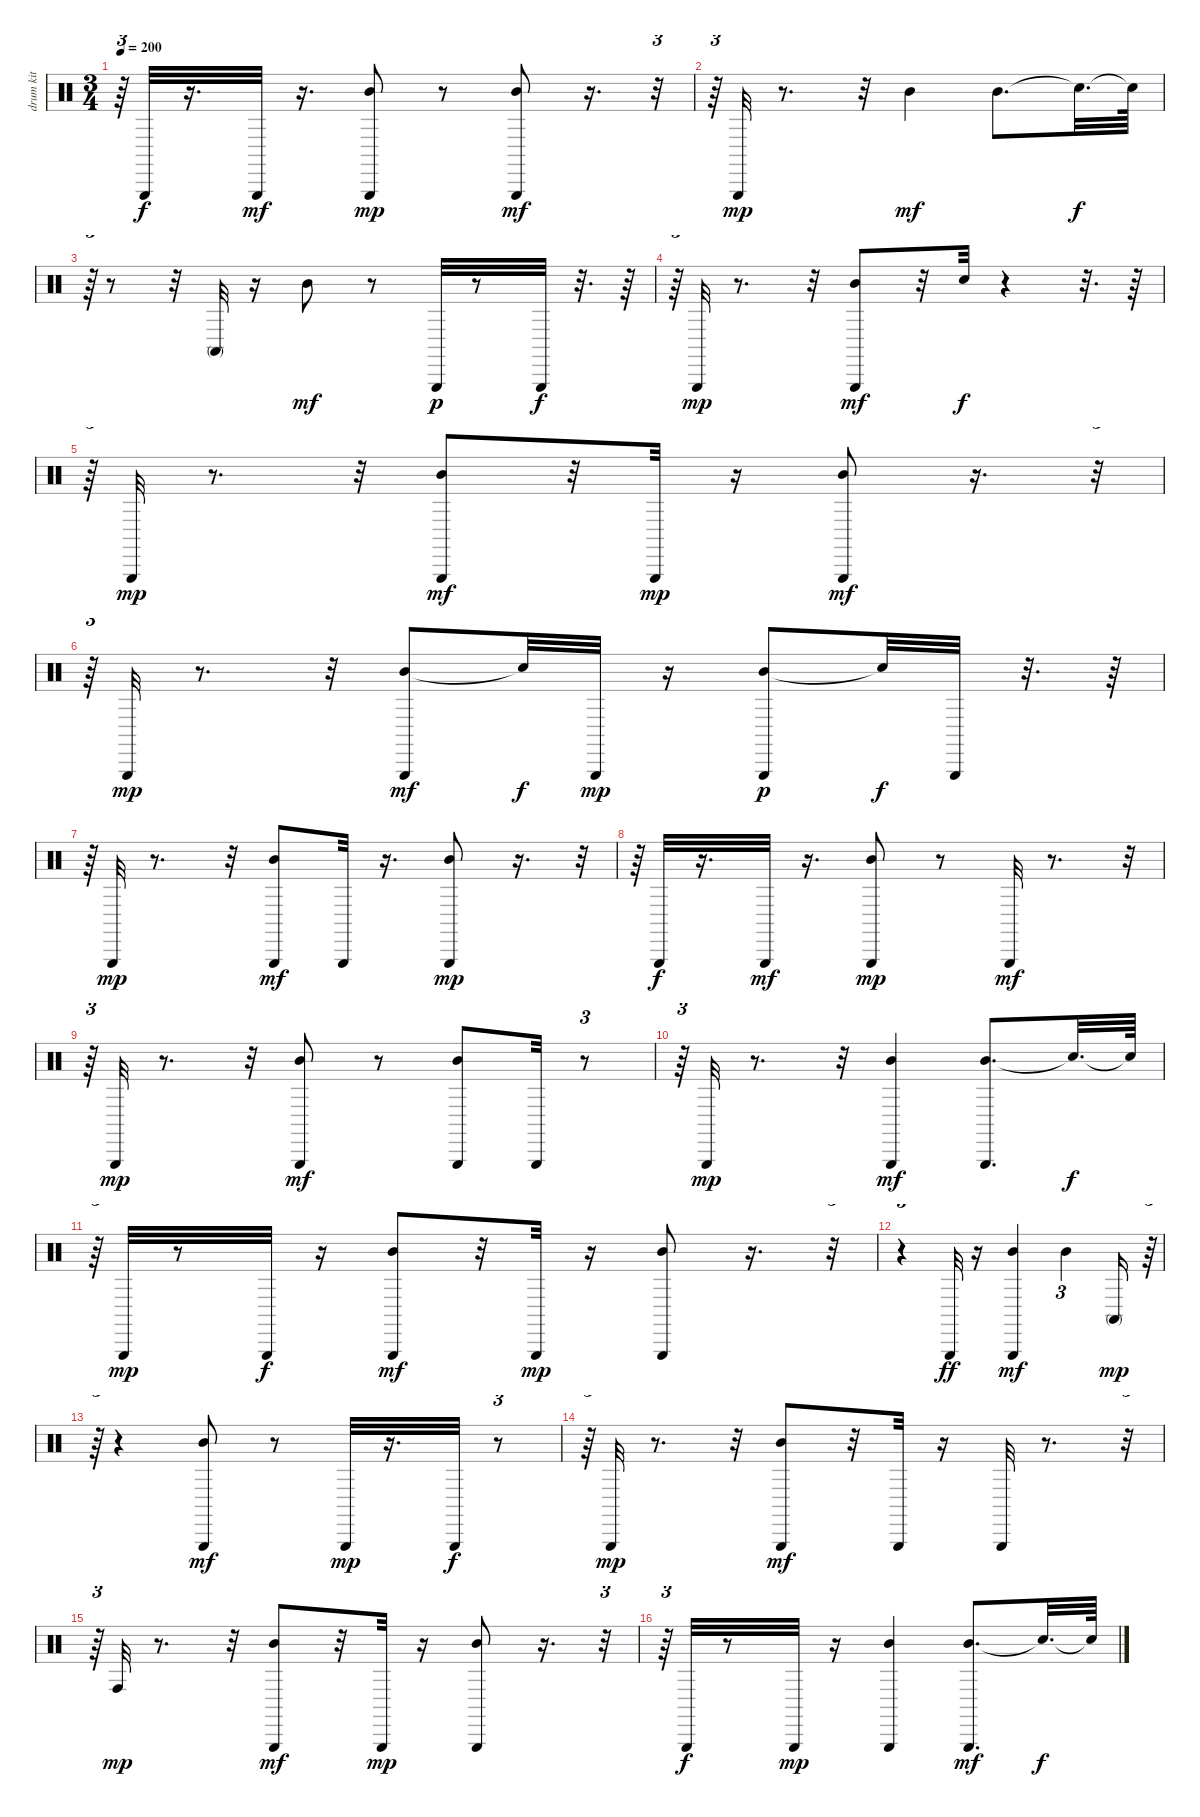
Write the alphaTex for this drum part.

\track (" drum kit (hi-hat/cymbals)" " drum kit ") {instrument percussion}
\staff {score}
\articulation defaults
\ts (3 4)
\tempo 200
\clef neutral
\ks c
r.64{tu (3 2) dy f} "Triangle (hit)".32 r.16{d} "Triangle (hit)".32{dy mf} r.16{d} ("Mid Tom (hit)" "Triangle (hit)").8{dy mp} r.8 ("Mid Tom (hit)" "Triangle (hit)").8{dy mf} r.16{d} r.32{tu (3 2)} |
r.64{tu (3 2)} "Triangle (hit)".32{dy mp} r.8{d} r.32 "Mid Tom (hit)".4{dy mf} "Mid Tom (hit)".8{d} "Snare (hit)"{t}.32{d dy f} "Snare (hit)"{t}.64 |
r.64{tu (3 2)} r.8 r.32 "Conga high (mute)".32 r.16 "Mid Tom (hit)".8{dy mf} r.8 "Triangle (hit)".32{dy p} r.8 "Triangle (hit)".32{dy f} r.32{d} r.64 |
r.64{tu (3 2)} "Triangle (hit)".32{dy mp} r.8{d} r.32 ("Mid Tom (hit)" "Triangle (hit)").8{dy mf} r.32 "Snare (hit)".32{dy f} r.4 r.32{d} r.64 |
r.64{tu (3 2)} "Triangle (hit)".32{dy mp} r.8{d} r.32 ("Mid Tom (hit)" "Triangle (hit)").8{dy mf} r.32 "Triangle (hit)".32{dy mp} r.16 ("Mid Tom (hit)" "Triangle (hit)").8{dy mf} r.16{d} r.32{tu (3 2)} |
r.64{tu (3 2)} "Triangle (hit)".32{dy mp} r.8{d} r.32 ("Mid Tom (hit)" "Triangle (hit)").8{dy mf} "Snare (hit)"{t}.32{dy f} "Triangle (hit)".32{dy mp} r.16 ("Mid Tom (hit)" "Triangle (hit)").8{dy p} "Snare (hit)"{t}.32{dy f} "Triangle (hit)".32 r.32{d} r.64 |
r.64{tu (3 2)} "Triangle (hit)".32{dy mp} r.8{d} r.32 ("Mid Tom (hit)" "Triangle (hit)").8{dy mf} "Triangle (hit)".32 r.16{d} ("Mid Tom (hit)" "Triangle (hit)").8{dy mp} r.16{d} r.32{tu (3 2)} |
r.64{tu (3 2)} "Triangle (hit)".32{dy f} r.16{d} "Triangle (hit)".32{dy mf} r.16{d} ("Mid Tom (hit)" "Triangle (hit)").8{dy mp} r.8 "Triangle (hit)".32{dy mf} r.8{d} r.32{tu (3 2)} |
r.64{tu (3 2)} "Triangle (hit)".32{dy mp} r.8{d} r.32 ("Mid Tom (hit)" "Triangle (hit)").8{dy mf} r.8 ("Mid Tom (hit)" "Triangle (hit)").8 "Triangle (hit)".32 r.8{tu (3 2)} |
r.64{tu (3 2)} "Triangle (hit)".32{dy mp} r.8{d} r.32 ("Mid Tom (hit)" "Triangle (hit)").4{dy mf} ("Mid Tom (hit)" "Triangle (hit)").8{d} "Snare (hit)"{t}.32{d dy f} "Snare (hit)"{t}.64 |
r.64{tu (3 2)} "Triangle (hit)".32{dy mp} r.8 "Triangle (hit)".32{dy f} r.16 ("Mid Tom (hit)" "Triangle (hit)").8{dy mf} r.32 "Triangle (hit)".32{dy mp} r.16 ("Mid Tom (hit)" "Triangle (hit)").8 r.16{d} r.32{tu (3 2)} |
r.4{tu (3 2)} "Triangle (hit)".32{dy ff} r.16 ("Mid Tom (hit)" "Triangle (hit)").4{dy mf} "Mid Tom (hit)".4{tu (3 2)} "Conga high (mute)".16{dy mp} r.64{tu (3 2)} |
r.64{tu (3 2)} r.4 ("Mid Tom (hit)" "Triangle (hit)").8{dy mf} r.8 "Triangle (hit)".32{dy mp} r.16{d} "Triangle (hit)".32{dy f} r.8{tu (3 2)} |
r.64{tu (3 2)} "Triangle (hit)".32{dy mp} r.8{d} r.32 ("Mid Tom (hit)" "Triangle (hit)").8{dy mf} r.32 "Triangle (hit)".32 r.16 "Triangle (hit)".32 r.8{d} r.32{tu (3 2)} |
r.64{tu (3 2)} "Conga high (hit)".32{dy mp} r.8{d} r.32 ("Mid Tom (hit)" "Triangle (hit)").8{dy mf} r.32 "Triangle (hit)".32{dy mp} r.16 ("Mid Tom (hit)" "Triangle (hit)").8 r.16{d} r.32{tu (3 2)} |
r.64{tu (3 2)} "Triangle (hit)".32{dy f} r.8 "Triangle (hit)".32{dy mp} r.16 ("Mid Tom (hit)" "Triangle (hit)").4 ("Mid Tom (hit)" "Triangle (hit)").8{d dy mf} "Snare (hit)"{t}.32{d dy f} "Snare (hit)"{t}.64
